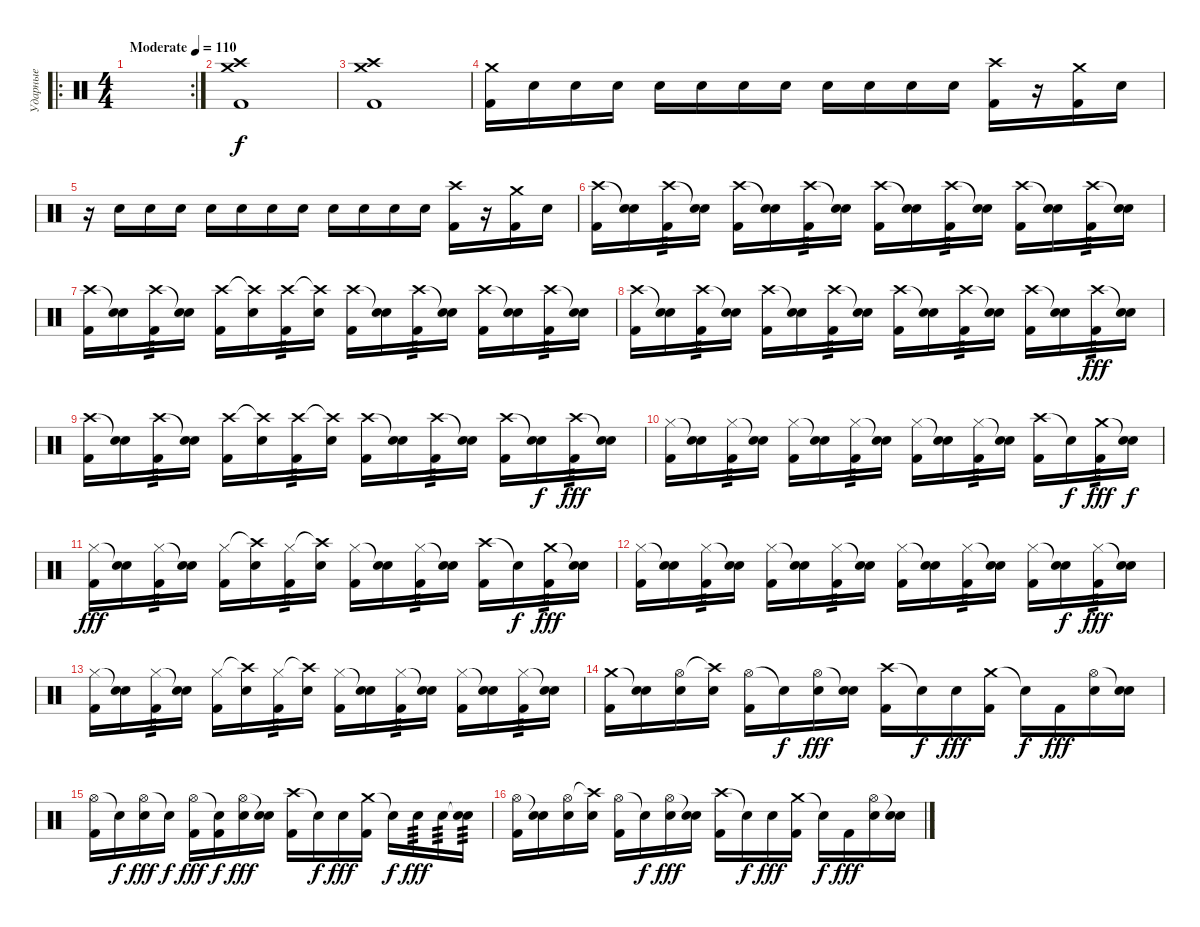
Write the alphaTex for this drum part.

\track ("Ударные" "Ударные") {instrument percussion}
\staff {score}
\articulation defaults
\ro
\rc 2
\ts (4 4)
\tempo (110 "Moderate")
\clef neutral
\ks c
|
("Crash medium (hit)" "Crash high (hit)" "Kick (hit) 2").1 |
("Crash medium (hit)" "Crash high (hit)" "Kick (hit) 2").1 |
("Crash medium (hit)" "Kick (hit) 2").16 "Snare (hit)".16 "Snare (hit)".16 "Snare (hit)".16 "Snare (hit)".16 "Snare (hit)".16 "Snare (hit)".16 "Snare (hit)".16 "Snare (hit)".16 "Snare (hit)".16 "Snare (hit)".16 "Snare (hit)".16 ("Crash high (hit)" "Kick (hit) 2").16 r.16 ("Crash medium (hit)" "Kick (hit) 2").16 "Snare (hit)".16 |
r.16 "Snare (hit)".16 "Snare (hit)".16 "Snare (hit)".16 "Snare (hit)".16 "Snare (hit)".16 "Snare (hit)".16 "Snare (hit)".16 "Snare (hit)".16 "Snare (hit)".16 "Snare (hit)".16 "Snare (hit)".16 ("Crash high (hit)" "Kick (hit) 2").16 r.16 ("Crash medium (hit)" "Kick (hit) 2").16 "Snare (hit)".16 |
("Crash high (hit)" "Kick (hit) 2").16 ("Snare (hit)"{t} "Electric Snare (hit)").16 ("Crash high (hit)" "Kick (hit) 2").16{tp 3} ("Snare (hit)"{t} "Electric Snare (hit)").16 ("Crash high (hit)" "Kick (hit) 2").16 ("Snare (hit)"{t} "Electric Snare (hit)").16 ("Crash high (hit)" "Kick (hit) 2").16{tp 3} ("Snare (hit)"{t} "Electric Snare (hit)").16 ("Crash high (hit)" "Kick (hit) 2").16 ("Snare (hit)"{t} "Electric Snare (hit)").16 ("Crash high (hit)" "Kick (hit) 2").16{tp 3} ("Snare (hit)"{t} "Electric Snare (hit)").16 ("Crash high (hit)" "Kick (hit) 2").16 ("Snare (hit)"{t} "Electric Snare (hit)").16 ("Crash high (hit)" "Kick (hit) 2").16{tp 3} ("Snare (hit)"{t} "Electric Snare (hit)").16 |
("Crash high (hit)" "Kick (hit) 2").16 ("Snare (hit)"{t} "Electric Snare (hit)").16 ("Crash high (hit)" "Kick (hit) 2").16{tp 3} ("Snare (hit)"{t} "Electric Snare (hit)").16 ("Crash high (hit)" "Kick (hit) 2").16 ("Crash high (hit)"{t} "Electric Snare (hit)").16 ("Crash high (hit)" "Kick (hit) 2").16{tp 3} ("Crash high (hit)"{t} "Electric Snare (hit)").16 ("Crash high (hit)" "Kick (hit) 2").16 ("Snare (hit)"{t} "Electric Snare (hit)").16 ("Crash high (hit)" "Kick (hit) 2").16{tp 3} ("Snare (hit)"{t} "Electric Snare (hit)").16 ("Crash high (hit)" "Kick (hit) 2").16 ("Snare (hit)"{t} "Electric Snare (hit)").16 ("Crash high (hit)" "Kick (hit) 2").16{tp 3} ("Snare (hit)"{t} "Electric Snare (hit)").16 |
("Crash high (hit)" "Kick (hit) 2").16 ("Snare (hit)"{t} "Electric Snare (hit)").16 ("Crash high (hit)" "Kick (hit) 2").16{tp 3} ("Snare (hit)"{t} "Electric Snare (hit)").16 ("Crash high (hit)" "Kick (hit) 2").16 ("Snare (hit)"{t} "Electric Snare (hit)").16 ("Crash high (hit)" "Kick (hit) 2").16{tp 3} ("Snare (hit)"{t} "Electric Snare (hit)").16 ("Crash high (hit)" "Kick (hit) 2").16 ("Snare (hit)"{t} "Electric Snare (hit)").16 ("Crash high (hit)" "Kick (hit) 2").16{tp 3} ("Snare (hit)"{t} "Electric Snare (hit)").16 ("Crash high (hit)" "Kick (hit) 2").16 ("Snare (hit)"{t} "Electric Snare (hit)").16{dy f} ("Crash high (hit)" "Kick (hit) 2").16{tp 3 dy fff} ("Snare (hit)"{t} "Electric Snare (hit)").16 |
("Crash high (hit)" "Kick (hit) 2").16 ("Snare (hit)"{t} "Electric Snare (hit)").16 ("Crash high (hit)" "Kick (hit) 2").16{tp 3} ("Snare (hit)"{t} "Electric Snare (hit)").16 ("Crash high (hit)" "Kick (hit) 2").16 ("Crash high (hit)"{t} "Electric Snare (hit)").16 ("Crash high (hit)" "Kick (hit) 2").16{tp 3} ("Crash high (hit)"{t} "Electric Snare (hit)").16 ("Crash high (hit)" "Kick (hit) 2").16 ("Snare (hit)"{t} "Electric Snare (hit)").16 ("Crash high (hit)" "Kick (hit) 2").16{tp 3} ("Snare (hit)"{t} "Electric Snare (hit)").16 ("Crash high (hit)" "Kick (hit) 2").16 ("Snare (hit)"{t} "Electric Snare (hit)").16{dy f} ("Crash high (hit)" "Kick (hit) 2").16{tp 3 dy fff} ("Snare (hit)"{t} "Electric Snare (hit)").16 |
("Hi-Hat (closed)" "Kick (hit) 2").16 ("Snare (hit)"{t} "Electric Snare (hit)").16 ("Hi-Hat (closed)" "Kick (hit) 2").16{tp 3} ("Snare (hit)"{t} "Electric Snare (hit)").16 ("Hi-Hat (closed)" "Kick (hit) 2").16 ("Snare (hit)"{t} "Electric Snare (hit)").16 ("Hi-Hat (closed)" "Kick (hit) 2").16{tp 3} ("Snare (hit)"{t} "Electric Snare (hit)").16 ("Hi-Hat (closed)" "Kick (hit) 2").16 ("Snare (hit)"{t} "Electric Snare (hit)").16 ("Hi-Hat (closed)" "Kick (hit) 2").16{tp 3} ("Snare (hit)"{t} "Electric Snare (hit)").16 ("Crash high (hit)" "Kick (hit) 2").16 "Snare (hit)"{t}.16{dy f} ("Crash medium (hit)" "Kick (hit) 2").16{tp 3 dy fff} ("Snare (hit)"{t} "Snare (hit)").16{dy f} |
("Hi-Hat (closed)" "Kick (hit) 2").16{dy fff} ("Snare (hit)"{t} "Electric Snare (hit)").16 ("Hi-Hat (closed)" "Kick (hit) 2").16{tp 3} ("Snare (hit)"{t} "Electric Snare (hit)").16 ("Hi-Hat (closed)" "Kick (hit) 2").16 ("Crash high (hit)"{t} "Electric Snare (hit)").16 ("Hi-Hat (closed)" "Kick (hit) 2").16{tp 3} ("Crash high (hit)"{t} "Electric Snare (hit)").16 ("Hi-Hat (closed)" "Kick (hit) 2").16 ("Snare (hit)"{t} "Electric Snare (hit)").16 ("Hi-Hat (closed)" "Kick (hit) 2").16{tp 3} ("Snare (hit)"{t} "Electric Snare (hit)").16 ("Crash high (hit)" "Kick (hit) 2").16 "Snare (hit)"{t}.16{dy f} ("Crash medium (hit)" "Kick (hit) 2").16{tp 3 dy fff} ("Snare (hit)"{t} "Snare (hit)").16 |
("Hi-Hat (closed)" "Kick (hit) 2").16 ("Snare (hit)"{t} "Electric Snare (hit)").16 ("Hi-Hat (closed)" "Kick (hit) 2").16{tp 3} ("Snare (hit)"{t} "Electric Snare (hit)").16 ("Hi-Hat (closed)" "Kick (hit) 2").16 ("Snare (hit)"{t} "Electric Snare (hit)").16 ("Hi-Hat (closed)" "Kick (hit) 2").16{tp 3} ("Snare (hit)"{t} "Electric Snare (hit)").16 ("Hi-Hat (closed)" "Kick (hit) 2").16 ("Snare (hit)"{t} "Electric Snare (hit)").16 ("Hi-Hat (closed)" "Kick (hit) 2").16{tp 3} ("Snare (hit)"{t} "Electric Snare (hit)").16 ("Hi-Hat (closed)" "Kick (hit) 2").16 ("Snare (hit)"{t} "Electric Snare (hit)").16{dy f} ("Hi-Hat (closed)" "Kick (hit) 2").16{tp 3 dy fff} ("Snare (hit)"{t} "Electric Snare (hit)").16 |
("Hi-Hat (closed)" "Kick (hit) 2").16 ("Snare (hit)"{t} "Electric Snare (hit)").16 ("Hi-Hat (closed)" "Kick (hit) 2").16{tp 3} ("Snare (hit)"{t} "Electric Snare (hit)").16 ("Hi-Hat (closed)" "Kick (hit) 2").16 ("Crash high (hit)"{t} "Electric Snare (hit)").16 ("Hi-Hat (closed)" "Kick (hit) 2").16{tp 3} ("Crash high (hit)"{t} "Electric Snare (hit)").16 ("Hi-Hat (closed)" "Kick (hit) 2").16 ("Snare (hit)"{t} "Electric Snare (hit)").16 ("Hi-Hat (closed)" "Kick (hit) 2").16{tp 3} ("Snare (hit)"{t} "Electric Snare (hit)").16 ("Hi-Hat (closed)" "Kick (hit) 2").16 ("Snare (hit)"{t} "Electric Snare (hit)").16 ("Hi-Hat (closed)" "Kick (hit) 2").16{tp 3} ("Snare (hit)"{t} "Electric Snare (hit)").16 |
("Crash medium (hit)" "Kick (hit) 2").16 ("Snare (hit)"{t} "Snare (hit)").16 ("Hi-Hat (open)" "Electric Snare (hit)").16 ("Crash high (hit)"{t} "Snare (hit)").16 ("Hi-Hat (open)" "Kick (hit) 2").16 "Snare (hit)"{t}.16{dy f} ("Hi-Hat (open)" "Electric Snare (hit)").16{dy fff} ("Snare (hit)"{t} "Snare (hit)").16 ("Crash high (hit)" "Kick (hit) 2").16 "Snare (hit)"{t}.16{dy f} "Electric Snare (hit)".16{dy fff} ("Crash medium (hit)" "Kick (hit) 2").16 "Snare (hit)"{t}.16{dy f} "Kick (hit) 2".16{dy fff} ("Hi-Hat (open)" "Electric Snare (hit)").16 ("Snare (hit)"{t} "Snare (hit)").16 |
("Hi-Hat (open)" "Kick (hit) 2").16 "Snare (hit)"{t}.16{dy f} ("Hi-Hat (open)" "Electric Snare (hit)").16{dy fff} "Snare (hit)"{t}.16{dy f} ("Hi-Hat (open)" "Kick (hit) 2").16{dy fff} ("Snare (hit)"{t} "Kick (hit) 2").16{dy f} ("Hi-Hat (open)" "Electric Snare (hit)").16{dy fff} ("Snare (hit)"{t} "Snare (hit)").16 ("Crash high (hit)" "Kick (hit) 2").16 "Snare (hit)"{t}.16{dy f} "Electric Snare (hit)".16{dy fff} ("Crash medium (hit)" "Kick (hit) 2").16 "Snare (hit)"{t}.16{dy f} "Electric Snare (hit)".16{tp 3 dy fff} "Electric Snare (hit)".16{tp 3} ("Snare (hit)"{t} "Electric Snare (hit)").16{tp 3} |
("Hi-Hat (open)" "Kick (hit) 2").16 ("Snare (hit)"{t} "Snare (hit)").16 ("Hi-Hat (open)" "Electric Snare (hit)").16 ("Crash high (hit)"{t} "Snare (hit)").16 ("Hi-Hat (open)" "Kick (hit) 2").16 "Snare (hit)"{t}.16{dy f} ("Hi-Hat (open)" "Electric Snare (hit)").16{dy fff} ("Snare (hit)"{t} "Snare (hit)").16 ("Crash high (hit)" "Kick (hit) 2").16 "Snare (hit)"{t}.16{dy f} "Electric Snare (hit)".16{dy fff} ("Crash medium (hit)" "Kick (hit) 2").16 "Snare (hit)"{t}.16{dy f} "Kick (hit) 2".16{dy fff} ("Hi-Hat (open)" "Electric Snare (hit)").16 ("Snare (hit)"{t} "Snare (hit)").16
